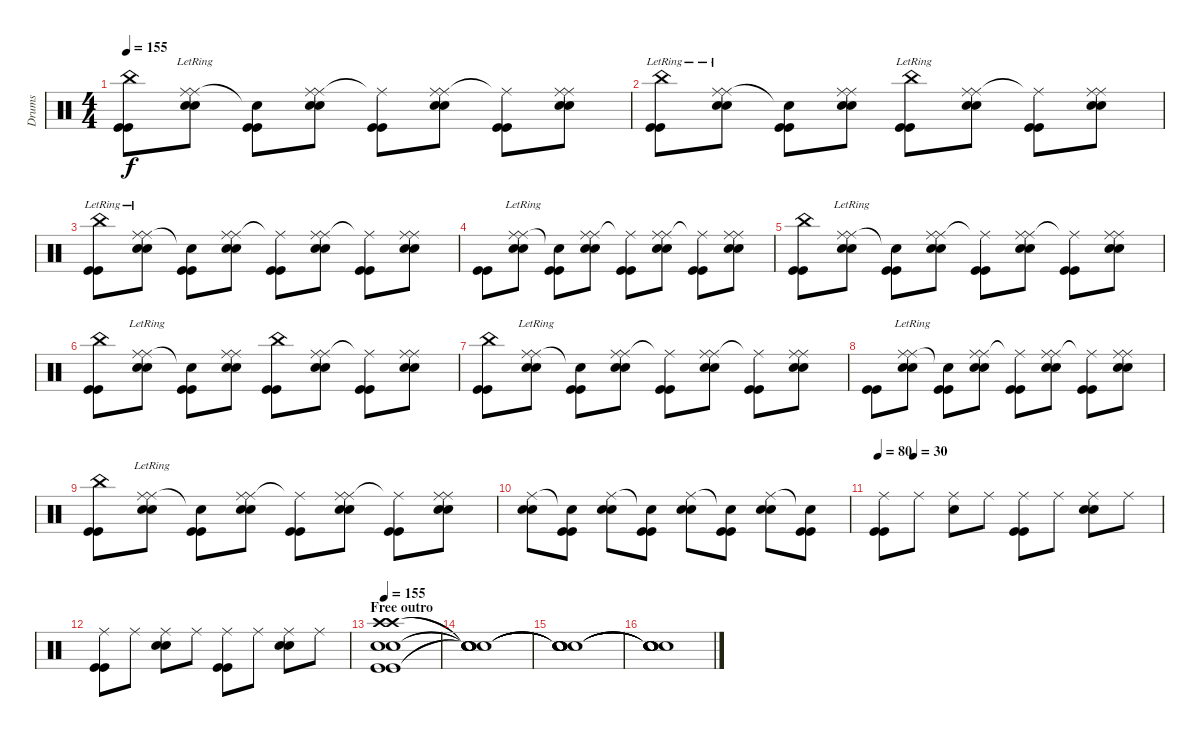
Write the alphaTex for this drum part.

\track ("Drums" "Drums") {instrument percussion}
\staff {score}
\articulation defaults
\ts (4 4)
\tempo 155
\clef neutral
\ks c
("China (hit)" "Kick (hit)" "Kick (hit)").8{dy f} ("Ride (middle)"{lr} "Snare (hit) 2" "Snare (hit) 2" "Ride (middle)").8 ("Snare (hit)"{t} "Kick (hit)" "Kick (hit)").8 ("Ride (middle)" "Snare (hit) 2" "Snare (hit) 2" "Ride (middle)").8 ("Ride (middle)"{t} "Kick (hit)" "Kick (hit)").8 ("Ride (middle)" "Snare (hit) 2" "Snare (hit) 2" "Ride (middle)").8 ("Ride (middle)"{t} "Kick (hit)" "Kick (hit)").8 ("Ride (middle)" "Snare (hit) 2" "Snare (hit) 2" "Ride (middle)").8 |
("China (hit)"{lr} "Kick (hit)" "Kick (hit)").8 ("Ride (middle)"{lr} "Snare (hit) 2" "Snare (hit) 2" "Ride (middle)").8 ("Snare (hit)"{t} "Kick (hit)" "Kick (hit)").8 ("Ride (middle)" "Snare (hit) 2" "Snare (hit) 2" "Ride (middle)").8 ("China (hit)"{lr} "Kick (hit)" "Kick (hit)").8 ("Ride (middle)" "Snare (hit) 2" "Snare (hit) 2" "Ride (middle)").8 ("Ride (middle)"{t} "Kick (hit)" "Kick (hit)").8 ("Ride (middle)" "Snare (hit) 2" "Snare (hit) 2" "Ride (middle)").8 |
("China (hit)"{lr} "Kick (hit)" "Kick (hit)").8 ("Ride (middle)"{lr} "Snare (hit) 2" "Snare (hit) 2" "Ride (middle)").8 ("Snare (hit)"{t} "Kick (hit)" "Kick (hit)").8 ("Ride (middle)" "Snare (hit) 2" "Snare (hit) 2" "Ride (middle)").8 ("Ride (middle)"{t} "Kick (hit)" "Kick (hit)").8 ("Ride (middle)" "Snare (hit) 2" "Snare (hit) 2" "Ride (middle)").8 ("Ride (middle)"{t} "Kick (hit)" "Kick (hit)").8 ("Ride (middle)" "Snare (hit) 2" "Snare (hit) 2" "Ride (middle)").8 |
("Kick (hit)" "Kick (hit)").8 ("Ride (middle)"{lr} "Snare (hit) 2" "Snare (hit) 2" "Ride (middle)").8 ("Snare (hit)"{t} "Kick (hit)" "Kick (hit)").8 ("Ride (middle)" "Snare (hit) 2" "Snare (hit) 2" "Ride (middle)").8 ("Ride (middle)"{t} "Kick (hit)" "Kick (hit)").8 ("Ride (middle)" "Snare (hit) 2" "Snare (hit) 2" "Ride (middle)").8 ("Ride (middle)"{t} "Kick (hit)" "Kick (hit)").8 ("Ride (middle)" "Snare (hit) 2" "Snare (hit) 2" "Ride (middle)").8 |
("China (hit)" "Kick (hit)" "Kick (hit)").8 ("Ride (middle)"{lr} "Snare (hit) 2" "Snare (hit) 2" "Ride (middle)").8 ("Snare (hit)"{t} "Kick (hit)" "Kick (hit)").8 ("Ride (middle)" "Snare (hit) 2" "Snare (hit) 2" "Ride (middle)").8 ("Ride (middle)"{t} "Kick (hit)" "Kick (hit)").8 ("Ride (middle)" "Snare (hit) 2" "Snare (hit) 2" "Ride (middle)").8 ("Ride (middle)"{t} "Kick (hit)" "Kick (hit)").8 ("Ride (middle)" "Snare (hit) 2" "Snare (hit) 2" "Ride (middle)").8 |
("China (hit)" "Kick (hit)" "Kick (hit)").8 ("Ride (middle)"{lr} "Snare (hit) 2" "Snare (hit) 2" "Ride (middle)").8 ("Snare (hit)"{t} "Kick (hit)" "Kick (hit)").8 ("Ride (middle)" "Snare (hit) 2" "Snare (hit) 2" "Ride (middle)").8 ("China (hit)" "Kick (hit)" "Kick (hit)").8 ("Ride (middle)" "Snare (hit) 2" "Snare (hit) 2" "Ride (middle)").8 ("Ride (middle)"{t} "Kick (hit)" "Kick (hit)").8 ("Ride (middle)" "Snare (hit) 2" "Snare (hit) 2" "Ride (middle)").8 |
("China (hit)" "Kick (hit)" "Kick (hit)").8 ("Ride (middle)"{lr} "Snare (hit) 2" "Snare (hit) 2" "Ride (middle)").8 ("Snare (hit)"{t} "Kick (hit)" "Kick (hit)").8 ("Ride (middle)" "Snare (hit) 2" "Snare (hit) 2" "Ride (middle)").8 ("Ride (middle)"{t} "Kick (hit)" "Kick (hit)").8 ("Ride (middle)" "Snare (hit) 2" "Snare (hit) 2" "Ride (middle)").8 ("Ride (middle)"{t} "Kick (hit)" "Kick (hit)").8 ("Ride (middle)" "Snare (hit) 2" "Snare (hit) 2" "Ride (middle)").8 |
("Kick (hit)" "Kick (hit)").8 ("Ride (middle)"{lr} "Snare (hit) 2" "Snare (hit) 2" "Ride (middle)").8 ("Snare (hit)"{t} "Kick (hit)" "Kick (hit)").8 ("Ride (middle)" "Snare (hit) 2" "Snare (hit) 2" "Ride (middle)").8 ("Ride (middle)"{t} "Kick (hit)" "Kick (hit)").8 ("Ride (middle)" "Snare (hit) 2" "Snare (hit) 2" "Ride (middle)").8 ("Ride (middle)"{t} "Kick (hit)" "Kick (hit)").8 ("Ride (middle)" "Snare (hit) 2" "Snare (hit) 2" "Ride (middle)").8 |
("China (hit)" "Kick (hit)" "Kick (hit)").8 ("Ride (middle)"{lr} "Snare (hit) 2" "Snare (hit) 2" "Ride (middle)").8 ("Snare (hit)"{t} "Kick (hit)" "Kick (hit)").8 ("Ride (middle)" "Snare (hit) 2" "Snare (hit) 2" "Ride (middle)").8 ("Ride (middle)"{t} "Kick (hit)" "Kick (hit)").8 ("Ride (middle)" "Snare (hit) 2" "Snare (hit) 2" "Ride (middle)").8 ("Ride (middle)"{t} "Kick (hit)" "Kick (hit)").8 ("Ride (middle)" "Snare (hit) 2" "Snare (hit) 2" "Ride (middle)").8 |
("Ride (middle)" "Snare (hit) 2" "Snare (hit) 2").8 ("Snare (hit)"{t} "Kick (hit)" "Kick (hit)").8 ("Ride (middle)" "Snare (hit) 2" "Snare (hit) 2").8 ("Snare (hit)"{t} "Kick (hit)" "Kick (hit)").8 ("Ride (middle)" "Snare (hit) 2" "Snare (hit) 2").8 ("Snare (hit)"{t} "Kick (hit)" "Kick (hit)").8 ("Ride (middle)" "Snare (hit) 2" "Snare (hit) 2").8 ("Snare (hit)"{t} "Kick (hit)" "Kick (hit)").8 |
\tempo 80
\tempo (30 0.125)
("Ride (middle)" "Kick (hit)" "Kick (hit)").8 "Ride (middle)".8 ("Ride (middle)" "Snare (hit) 2").8 "Ride (middle)".8 ("Ride (middle)" "Kick (hit)" "Kick (hit)").8 "Ride (middle)".8 ("Ride (middle)" "Snare (hit) 2" "Snare (hit) 2").8 "Ride (middle)".8 |
("Ride (middle)" "Kick (hit)" "Kick (hit)").8 "Ride (middle)".8 ("Ride (middle)" "Snare (hit) 2" "Snare (hit) 2").8 "Ride (middle)".8 ("Ride (middle)" "Kick (hit)" "Kick (hit)").8 "Ride (middle)".8 ("Ride (middle)" "Snare (hit) 2" "Snare (hit) 2").8 "Ride (middle)".8 |
\section ("" "Free outro")
\tempo 155
("Crash high (hit)" "Snare (hit) 2" "Snare (hit) 2" "Crash high (hit)" "Kick (hit)" "Kick (hit)").1 |
("Snare (hit)"{t} "Snare (hit)"{t} "Snare (hit)"{t} "Snare (hit)"{t} "Snare (hit)"{t} "Snare (hit)"{t}).1 |
("Snare (hit)"{t} "Snare (hit)"{t} "Snare (hit)"{t} "Snare (hit)"{t} "Snare (hit)"{t} "Snare (hit)"{t}).1 |
("Snare (hit)"{t} "Snare (hit)"{t} "Snare (hit)"{t} "Snare (hit)"{t} "Snare (hit)"{t} "Snare (hit)"{t}).1
